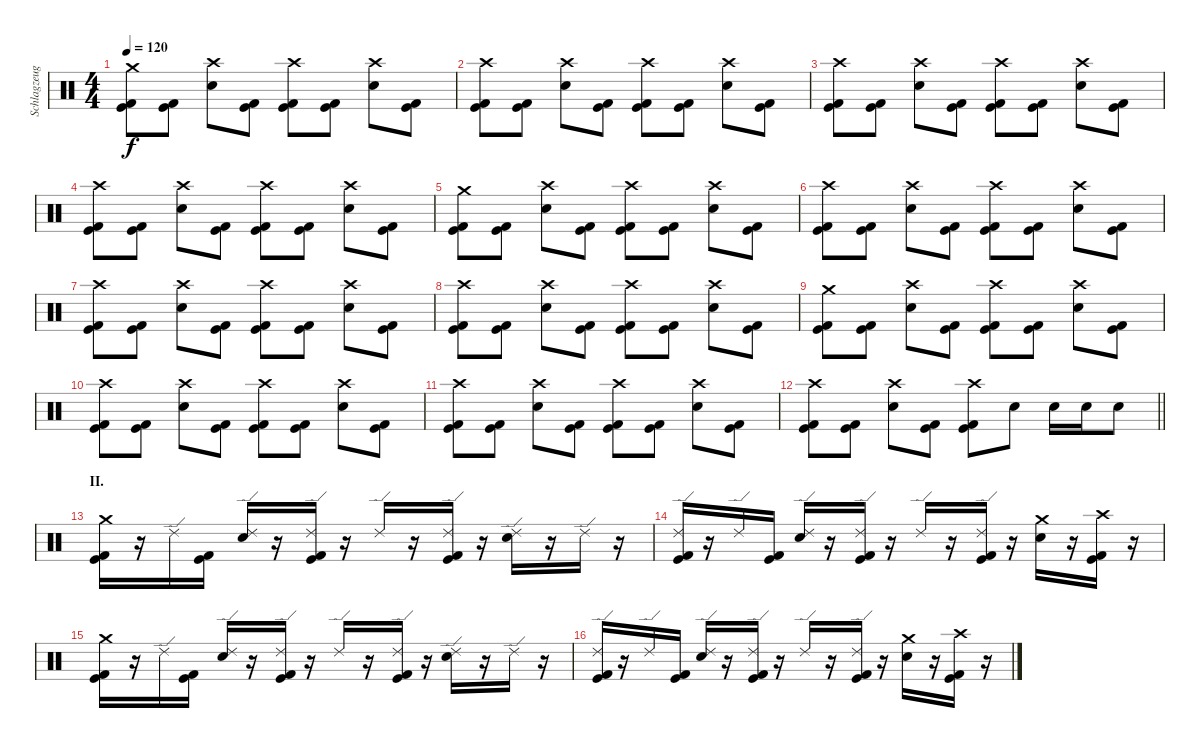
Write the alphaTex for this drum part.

\track ("Schlagzeug" "Schlagzeug") {instrument percussion}
\staff {score}
\articulation defaults
\ts (4 4)
\tempo 120
\clef neutral
\ks c
("Kick (hit) 2" "Kick (hit)" "Crash medium (hit)").8{dy f} ("Kick (hit) 2" "Kick (hit)").8 ("Electric Snare (hit)" "Crash high (hit)").8 ("Kick (hit) 2" "Kick (hit)").8 ("Kick (hit) 2" "Kick (hit)" "Crash high (hit)").8 ("Kick (hit) 2" "Kick (hit)").8 ("Electric Snare (hit)" "Crash high (hit)").8 ("Kick (hit) 2" "Kick (hit)").8 |
("Kick (hit) 2" "Kick (hit)" "Crash high (hit)").8 ("Kick (hit) 2" "Kick (hit)").8 ("Electric Snare (hit)" "Crash high (hit)").8 ("Kick (hit) 2" "Kick (hit)").8 ("Kick (hit) 2" "Kick (hit)" "Crash high (hit)").8 ("Kick (hit) 2" "Kick (hit)").8 ("Electric Snare (hit)" "Crash high (hit)").8 ("Kick (hit) 2" "Kick (hit)").8 |
("Kick (hit) 2" "Kick (hit)" "Crash high (hit)").8 ("Kick (hit) 2" "Kick (hit)").8 ("Electric Snare (hit)" "Crash high (hit)").8 ("Kick (hit) 2" "Kick (hit)").8 ("Kick (hit) 2" "Kick (hit)" "Crash high (hit)").8 ("Kick (hit) 2" "Kick (hit)").8 ("Electric Snare (hit)" "Crash high (hit)").8 ("Kick (hit) 2" "Kick (hit)").8 |
("Kick (hit) 2" "Kick (hit)" "Crash high (hit)").8 ("Kick (hit) 2" "Kick (hit)").8 ("Electric Snare (hit)" "Crash high (hit)").8 ("Kick (hit) 2" "Kick (hit)").8 ("Kick (hit) 2" "Kick (hit)" "Crash high (hit)").8 ("Kick (hit) 2" "Kick (hit)").8 ("Electric Snare (hit)" "Crash high (hit)").8 ("Kick (hit) 2" "Kick (hit)").8 |
("Kick (hit) 2" "Kick (hit)" "Crash medium (hit)").8 ("Kick (hit) 2" "Kick (hit)").8 ("Electric Snare (hit)" "Crash high (hit)").8 ("Kick (hit) 2" "Kick (hit)").8 ("Kick (hit) 2" "Kick (hit)" "Crash high (hit)").8 ("Kick (hit) 2" "Kick (hit)").8 ("Electric Snare (hit)" "Crash high (hit)").8 ("Kick (hit) 2" "Kick (hit)").8 |
("Kick (hit) 2" "Kick (hit)" "Crash high (hit)").8 ("Kick (hit) 2" "Kick (hit)").8 ("Electric Snare (hit)" "Crash high (hit)").8 ("Kick (hit) 2" "Kick (hit)").8 ("Kick (hit) 2" "Kick (hit)" "Crash high (hit)").8 ("Kick (hit) 2" "Kick (hit)").8 ("Electric Snare (hit)" "Crash high (hit)").8 ("Kick (hit) 2" "Kick (hit)").8 |
("Kick (hit) 2" "Kick (hit)" "Crash high (hit)").8 ("Kick (hit) 2" "Kick (hit)").8 ("Electric Snare (hit)" "Crash high (hit)").8 ("Kick (hit) 2" "Kick (hit)").8 ("Kick (hit) 2" "Kick (hit)" "Crash high (hit)").8 ("Kick (hit) 2" "Kick (hit)").8 ("Electric Snare (hit)" "Crash high (hit)").8 ("Kick (hit) 2" "Kick (hit)").8 |
("Kick (hit) 2" "Kick (hit)" "Crash high (hit)").8 ("Kick (hit) 2" "Kick (hit)").8 ("Electric Snare (hit)" "Crash high (hit)").8 ("Kick (hit) 2" "Kick (hit)").8 ("Kick (hit) 2" "Kick (hit)" "Crash high (hit)").8 ("Kick (hit) 2" "Kick (hit)").8 ("Electric Snare (hit)" "Crash high (hit)").8 ("Kick (hit) 2" "Kick (hit)").8 |
("Kick (hit) 2" "Kick (hit)" "Crash medium (hit)").8 ("Kick (hit) 2" "Kick (hit)").8 ("Electric Snare (hit)" "Crash high (hit)").8 ("Kick (hit) 2" "Kick (hit)").8 ("Kick (hit) 2" "Kick (hit)" "Crash high (hit)").8 ("Kick (hit) 2" "Kick (hit)").8 ("Electric Snare (hit)" "Crash high (hit)").8 ("Kick (hit) 2" "Kick (hit)").8 |
("Kick (hit) 2" "Kick (hit)" "Crash high (hit)").8 ("Kick (hit) 2" "Kick (hit)").8 ("Electric Snare (hit)" "Crash high (hit)").8 ("Kick (hit) 2" "Kick (hit)").8 ("Kick (hit) 2" "Kick (hit)" "Crash high (hit)").8 ("Kick (hit) 2" "Kick (hit)").8 ("Electric Snare (hit)" "Crash high (hit)").8 ("Kick (hit) 2" "Kick (hit)").8 |
("Kick (hit) 2" "Kick (hit)" "Crash high (hit)").8 ("Kick (hit) 2" "Kick (hit)").8 ("Electric Snare (hit)" "Crash high (hit)").8 ("Kick (hit) 2" "Kick (hit)").8 ("Kick (hit) 2" "Kick (hit)" "Crash high (hit)").8 ("Kick (hit) 2" "Kick (hit)").8 ("Electric Snare (hit)" "Crash high (hit)").8 ("Kick (hit) 2" "Kick (hit)").8 |
\barLineRight lightlight
("Kick (hit) 2" "Kick (hit)" "Crash high (hit)").8 ("Kick (hit) 2" "Kick (hit)").8 ("Electric Snare (hit)" "Crash high (hit)").8 ("Kick (hit) 2" "Kick (hit)").8 ("Kick (hit) 2" "Kick (hit)" "Crash high (hit)").8 "Electric Snare (hit)".8 "Electric Snare (hit)".16 "Electric Snare (hit)".16 "Electric Snare (hit)".8 |
\section ("" "II.")
("Kick (hit) 2" "Kick (hit)" "Crash medium (hit)").16 r.16 "Ride (edge) 2".16 ("Kick (hit) 2" "Kick (hit)").16 ("Electric Snare (hit)" "Ride (edge) 2").16 r.16 ("Kick (hit) 2" "Kick (hit)" "Ride (edge) 2").16 r.16 "Ride (edge) 2".16 r.16 ("Kick (hit) 2" "Kick (hit)" "Ride (edge) 2").16 r.16 ("Electric Snare (hit)" "Ride (edge) 2").16 r.16 "Ride (edge) 2".16 r.16 |
("Kick (hit) 2" "Kick (hit)" "Ride (edge) 2").16 r.16 "Ride (edge) 2".16 ("Kick (hit) 2" "Kick (hit)").16 ("Electric Snare (hit)" "Ride (edge) 2").16 r.16 ("Kick (hit) 2" "Kick (hit)" "Ride (edge) 2").16 r.16 "Ride (edge) 2".16 r.16 ("Kick (hit) 2" "Kick (hit)" "Ride (edge) 2").16 r.16 ("Electric Snare (hit)" "Crash medium (hit)").16 r.16 ("Kick (hit) 2" "Kick (hit)" "Crash high (hit)").16 r.16 |
("Kick (hit) 2" "Kick (hit)" "Crash medium (hit)").16 r.16 "Ride (edge) 2".16 ("Kick (hit) 2" "Kick (hit)").16 ("Electric Snare (hit)" "Ride (edge) 2").16 r.16 ("Kick (hit) 2" "Kick (hit)" "Ride (edge) 2").16 r.16 "Ride (edge) 2".16 r.16 ("Kick (hit) 2" "Kick (hit)" "Ride (edge) 2").16 r.16 ("Electric Snare (hit)" "Ride (edge) 2").16 r.16 "Ride (edge) 2".16 r.16 |
("Kick (hit) 2" "Kick (hit)" "Ride (edge) 2").16 r.16 "Ride (edge) 2".16 ("Kick (hit) 2" "Kick (hit)").16 ("Electric Snare (hit)" "Ride (edge) 2").16 r.16 ("Kick (hit) 2" "Kick (hit)" "Ride (edge) 2").16 r.16 "Ride (edge) 2".16 r.16 ("Kick (hit) 2" "Kick (hit)" "Ride (edge) 2").16 r.16 ("Electric Snare (hit)" "Crash medium (hit)").16 r.16 ("Kick (hit) 2" "Kick (hit)" "Crash high (hit)").16 r.16
